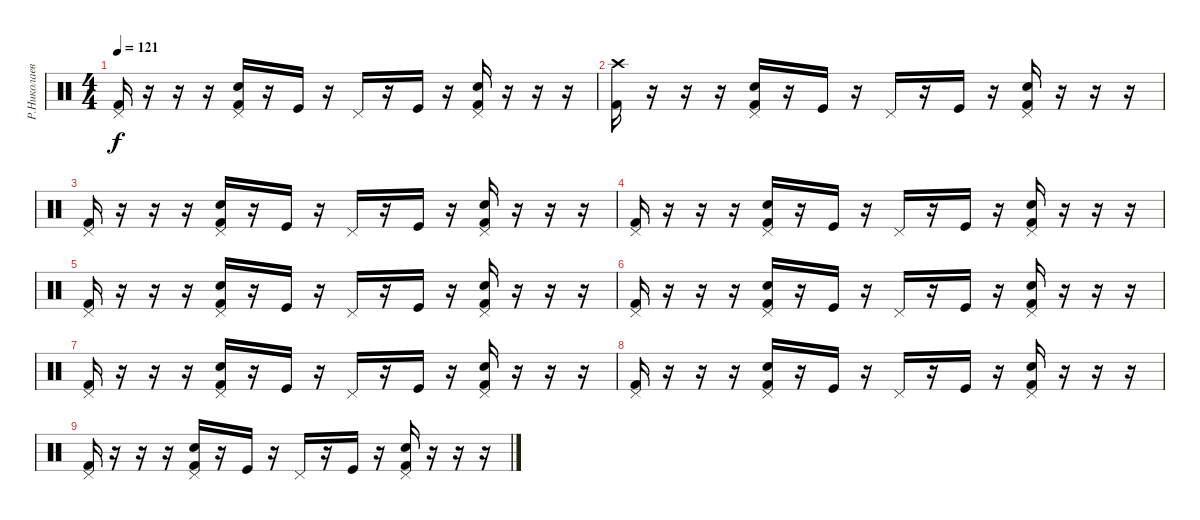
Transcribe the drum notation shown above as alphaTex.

\track ("Р.Николаев" "Р.Николаев") {instrument percussion}
\staff {score}
\articulation defaults
\ts (4 4)
\tempo 121
\clef neutral
\ks c
("Pedal Hi-Hat (hit)" "Kick (hit) 2").16{dy f} r.16 r.16 r.16 ("Pedal Hi-Hat (hit)" "Snare (hit) 2" "Kick (hit) 2").16 r.16 "Kick (hit)".16 r.16 "Pedal Hi-Hat (hit)".16 r.16 "Kick (hit)".16 r.16 ("Pedal Hi-Hat (hit)" "Snare (hit) 2" "Kick (hit) 2").16 r.16 r.16 r.16 |
("Crash high (hit)" "Kick (hit) 2").16 r.16 r.16 r.16 ("Pedal Hi-Hat (hit)" "Snare (hit) 2" "Kick (hit) 2").16 r.16 "Kick (hit)".16 r.16 "Pedal Hi-Hat (hit)".16 r.16 "Kick (hit)".16 r.16 ("Pedal Hi-Hat (hit)" "Snare (hit) 2" "Kick (hit) 2").16 r.16 r.16 r.16 |
("Pedal Hi-Hat (hit)" "Kick (hit) 2").16 r.16 r.16 r.16 ("Pedal Hi-Hat (hit)" "Snare (hit) 2" "Kick (hit) 2").16 r.16 "Kick (hit)".16 r.16 "Pedal Hi-Hat (hit)".16 r.16 "Kick (hit)".16 r.16 ("Pedal Hi-Hat (hit)" "Snare (hit) 2" "Kick (hit) 2").16 r.16 r.16 r.16 |
("Pedal Hi-Hat (hit)" "Kick (hit) 2").16 r.16 r.16 r.16 ("Pedal Hi-Hat (hit)" "Snare (hit) 2" "Kick (hit) 2").16 r.16 "Kick (hit)".16 r.16 "Pedal Hi-Hat (hit)".16 r.16 "Kick (hit)".16 r.16 ("Pedal Hi-Hat (hit)" "Snare (hit) 2" "Kick (hit) 2").16 r.16 r.16 r.16 |
("Pedal Hi-Hat (hit)" "Kick (hit) 2").16 r.16 r.16 r.16 ("Pedal Hi-Hat (hit)" "Snare (hit) 2" "Kick (hit) 2").16 r.16 "Kick (hit)".16 r.16 "Pedal Hi-Hat (hit)".16 r.16 "Kick (hit)".16 r.16 ("Pedal Hi-Hat (hit)" "Snare (hit) 2" "Kick (hit) 2").16 r.16 r.16 r.16 |
("Pedal Hi-Hat (hit)" "Kick (hit) 2").16 r.16 r.16 r.16 ("Pedal Hi-Hat (hit)" "Snare (hit) 2" "Kick (hit) 2").16 r.16 "Kick (hit)".16 r.16 "Pedal Hi-Hat (hit)".16 r.16 "Kick (hit)".16 r.16 ("Pedal Hi-Hat (hit)" "Snare (hit) 2" "Kick (hit) 2").16 r.16 r.16 r.16 |
("Pedal Hi-Hat (hit)" "Kick (hit) 2").16 r.16 r.16 r.16 ("Pedal Hi-Hat (hit)" "Snare (hit) 2" "Kick (hit) 2").16 r.16 "Kick (hit)".16 r.16 "Pedal Hi-Hat (hit)".16 r.16 "Kick (hit)".16 r.16 ("Pedal Hi-Hat (hit)" "Snare (hit) 2" "Kick (hit) 2").16 r.16 r.16 r.16 |
("Pedal Hi-Hat (hit)" "Kick (hit) 2").16 r.16 r.16 r.16 ("Pedal Hi-Hat (hit)" "Snare (hit) 2" "Kick (hit) 2").16 r.16 "Kick (hit)".16 r.16 "Pedal Hi-Hat (hit)".16 r.16 "Kick (hit)".16 r.16 ("Pedal Hi-Hat (hit)" "Snare (hit) 2" "Kick (hit) 2").16 r.16 r.16 r.16 |
("Pedal Hi-Hat (hit)" "Kick (hit) 2").16 r.16 r.16 r.16 ("Pedal Hi-Hat (hit)" "Snare (hit) 2" "Kick (hit) 2").16 r.16 "Kick (hit)".16 r.16 "Pedal Hi-Hat (hit)".16 r.16 "Kick (hit)".16 r.16 ("Pedal Hi-Hat (hit)" "Snare (hit) 2" "Kick (hit) 2").16 r.16 r.16 r.16
